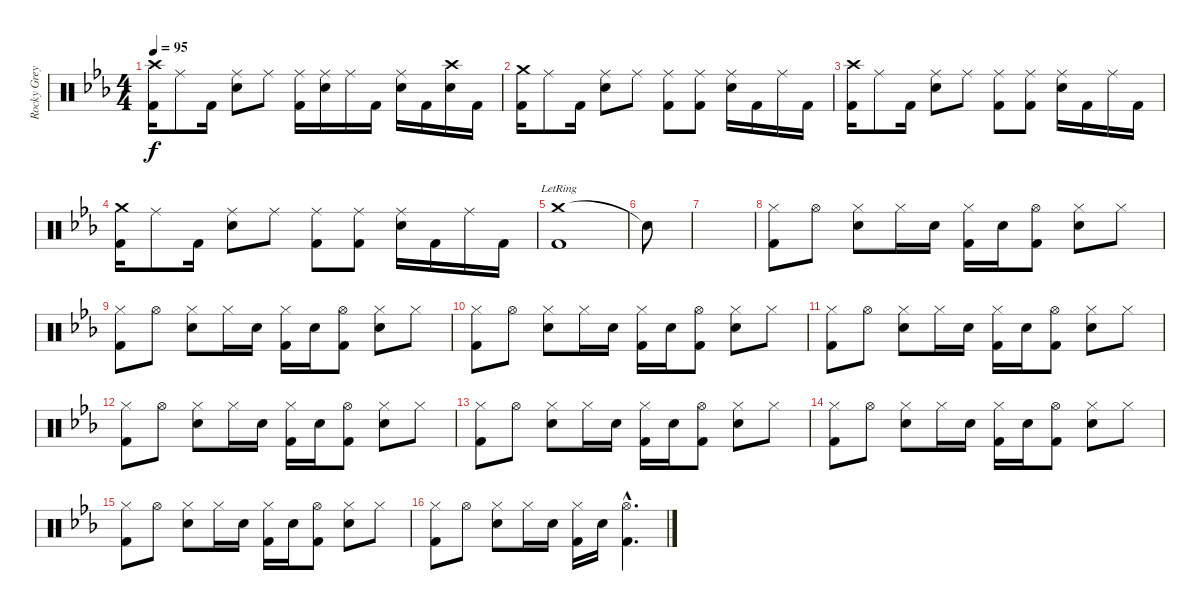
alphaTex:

\track ("Rocky Grey" "Rocky Grey") {instrument percussion}
\staff {score}
\articulation defaults
\ts (4 4)
\tempo 95
\clef neutral
\ks eb
("Crash high (hit)" "Kick (hit) 2").16{dy f} "Ride (middle)".8 "Kick (hit) 2".16 ("Ride (middle)" "Snare (hit) 2").8 "Ride (middle)".8 ("Ride (middle)" "Kick (hit) 2").16 ("Ride (middle)" "Snare (hit) 2").16 "Ride (middle)".16 "Kick (hit) 2".16 ("Ride (middle)" "Snare (hit) 2").16 "Kick (hit) 2".16 ("Crash high (hit)" "Snare (hit) 2").16 "Kick (hit) 2".16 |
("Crash medium (hit)" "Kick (hit) 2").16 "Ride (middle)".8 "Kick (hit) 2".16 ("Ride (middle)" "Snare (hit) 2").8 "Ride (middle)".8 ("Ride (middle)" "Kick (hit) 2").8 ("Ride (middle)" "Kick (hit) 2").8 ("Ride (middle)" "Snare (hit) 2").16 "Kick (hit) 2".16 "Ride (middle)".16 "Kick (hit) 2".16 |
("Crash high (hit)" "Kick (hit) 2").16 "Ride (middle)".8 "Kick (hit) 2".16 ("Ride (middle)" "Snare (hit) 2").8 "Ride (middle)".8 ("Ride (middle)" "Kick (hit) 2").8 ("Ride (middle)" "Kick (hit) 2").8 ("Ride (middle)" "Snare (hit) 2").16 "Kick (hit) 2".16 "Ride (middle)".16 "Kick (hit) 2".16 |
("Crash medium (hit)" "Kick (hit) 2").16 "Ride (middle)".8 "Kick (hit) 2".16 ("Ride (middle)" "Snare (hit) 2").8 "Ride (middle)".8 ("Ride (middle)" "Kick (hit) 2").8 ("Ride (middle)" "Kick (hit) 2").8 ("Ride (middle)" "Snare (hit) 2").16 "Kick (hit) 2".16 "Ride (middle)".16 "Kick (hit) 2".16 |
("Crash medium (hit)"{lr} "Kick (hit) 2").1 |
"Snare (hit)"{t}.8 |
|
("Hi-Hat (closed)" "Kick (hit) 2").8 "Hi-Hat (open)".8 ("Hi-Hat (closed)" "Snare (hit) 2").8 "Hi-Hat (closed)".16 "Snare (hit) 2".16 ("Hi-Hat (closed)" "Kick (hit) 2").16 "Snare (hit) 2".16 ("Hi-Hat (open)" "Kick (hit) 2").8 ("Hi-Hat (closed)" "Snare (hit) 2").8 "Hi-Hat (closed)".8 |
("Hi-Hat (closed)" "Kick (hit) 2").8 "Hi-Hat (open)".8 ("Hi-Hat (closed)" "Snare (hit) 2").8 "Hi-Hat (closed)".16 "Snare (hit) 2".16 ("Hi-Hat (closed)" "Kick (hit) 2").16 "Snare (hit) 2".16 ("Hi-Hat (open)" "Kick (hit) 2").8 ("Hi-Hat (closed)" "Snare (hit) 2").8 "Hi-Hat (closed)".8 |
("Hi-Hat (closed)" "Kick (hit) 2").8 "Hi-Hat (open)".8 ("Hi-Hat (closed)" "Snare (hit) 2").8 "Hi-Hat (closed)".16 "Snare (hit) 2".16 ("Hi-Hat (closed)" "Kick (hit) 2").16 "Snare (hit) 2".16 ("Hi-Hat (open)" "Kick (hit) 2").8 ("Hi-Hat (closed)" "Snare (hit) 2").8 "Hi-Hat (closed)".8 |
("Hi-Hat (closed)" "Kick (hit) 2").8 "Hi-Hat (open)".8 ("Hi-Hat (closed)" "Snare (hit) 2").8 "Hi-Hat (closed)".16 "Snare (hit) 2".16 ("Hi-Hat (closed)" "Kick (hit) 2").16 "Snare (hit) 2".16 ("Hi-Hat (open)" "Kick (hit) 2").8 ("Hi-Hat (closed)" "Snare (hit) 2").8 "Hi-Hat (closed)".8 |
("Hi-Hat (closed)" "Kick (hit) 2").8 "Hi-Hat (open)".8 ("Hi-Hat (closed)" "Snare (hit) 2").8 "Hi-Hat (closed)".16 "Snare (hit) 2".16 ("Hi-Hat (closed)" "Kick (hit) 2").16 "Snare (hit) 2".16 ("Hi-Hat (open)" "Kick (hit) 2").8 ("Hi-Hat (closed)" "Snare (hit) 2").8 "Hi-Hat (closed)".8 |
("Hi-Hat (closed)" "Kick (hit) 2").8 "Hi-Hat (open)".8 ("Hi-Hat (closed)" "Snare (hit) 2").8 "Hi-Hat (closed)".16 "Snare (hit) 2".16 ("Hi-Hat (closed)" "Kick (hit) 2").16 "Snare (hit) 2".16 ("Hi-Hat (open)" "Kick (hit) 2").8 ("Hi-Hat (closed)" "Snare (hit) 2").8 "Hi-Hat (closed)".8 |
("Hi-Hat (closed)" "Kick (hit) 2").8 "Hi-Hat (open)".8 ("Hi-Hat (closed)" "Snare (hit) 2").8 "Hi-Hat (closed)".16 "Snare (hit) 2".16 ("Hi-Hat (closed)" "Kick (hit) 2").16 "Snare (hit) 2".16 ("Hi-Hat (open)" "Kick (hit) 2").8 ("Hi-Hat (closed)" "Snare (hit) 2").8 "Hi-Hat (closed)".8 |
("Hi-Hat (closed)" "Kick (hit) 2").8 "Hi-Hat (open)".8 ("Hi-Hat (closed)" "Snare (hit) 2").8 "Hi-Hat (closed)".16 "Snare (hit) 2".16 ("Hi-Hat (closed)" "Kick (hit) 2").16 "Snare (hit) 2".16 ("Hi-Hat (open)" "Kick (hit) 2").8 ("Hi-Hat (closed)" "Snare (hit) 2").8 "Hi-Hat (closed)".8 |
("Hi-Hat (closed)" "Kick (hit) 2").8 "Hi-Hat (open)".8 ("Hi-Hat (closed)" "Snare (hit) 2").8 "Hi-Hat (closed)".16 "Snare (hit) 2".16 ("Hi-Hat (closed)" "Kick (hit) 2").16 "Snare (hit) 2".16 ("Hi-Hat (open)"{hac} "Kick (hit) 2"{hac}).4{d}
